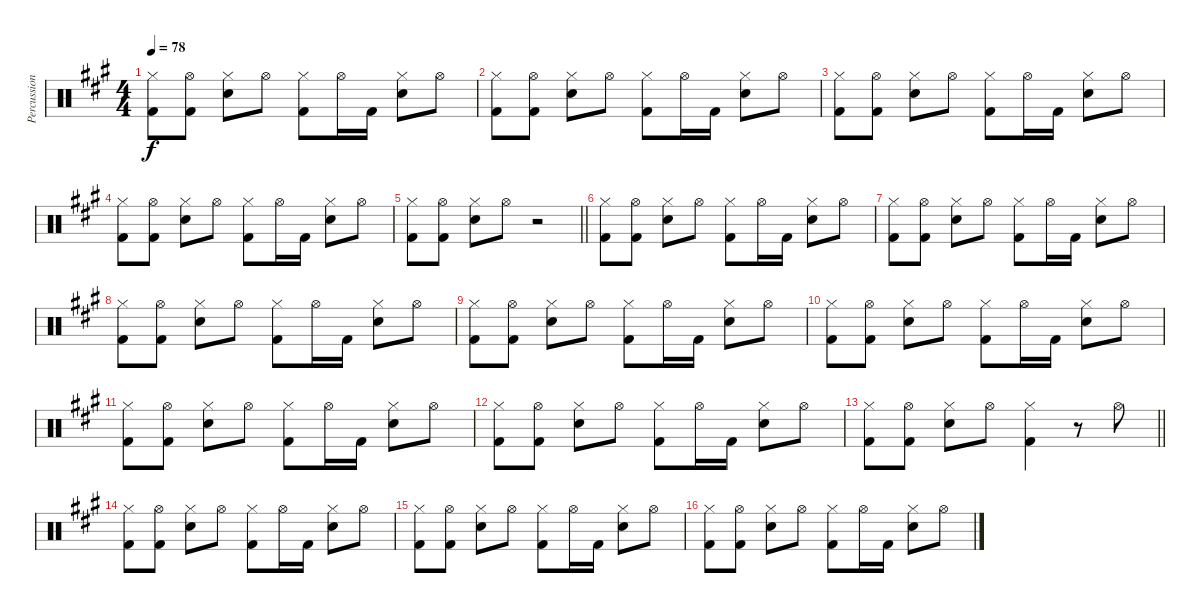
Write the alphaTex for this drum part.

\track ("Percussions" "Percussion") {instrument percussion}
\staff {score}
\articulation defaults
\ts (4 4)
\tempo 78
\clef neutral
\ks a
("Hi-Hat (closed)" "Kick (hit) 2").8{dy f} ("Hi-Hat (open)" "Kick (hit) 2").8 ("Hi-Hat (closed)" "Snare (hit) 2").8 "Hi-Hat (open)".8 ("Hi-Hat (closed)" "Kick (hit) 2").8 "Hi-Hat (open)".16 "Kick (hit) 2".16 ("Hi-Hat (closed)" "Snare (hit) 2").8 "Hi-Hat (open)".8 |
("Hi-Hat (closed)" "Kick (hit) 2").8 ("Hi-Hat (open)" "Kick (hit) 2").8 ("Hi-Hat (closed)" "Snare (hit) 2").8 "Hi-Hat (open)".8 ("Hi-Hat (closed)" "Kick (hit) 2").8 "Hi-Hat (open)".16 "Kick (hit) 2".16 ("Hi-Hat (closed)" "Snare (hit) 2").8 "Hi-Hat (open)".8 |
("Hi-Hat (closed)" "Kick (hit) 2").8 ("Hi-Hat (open)" "Kick (hit) 2").8 ("Hi-Hat (closed)" "Snare (hit) 2").8 "Hi-Hat (open)".8 ("Hi-Hat (closed)" "Kick (hit) 2").8 "Hi-Hat (open)".16 "Kick (hit) 2".16 ("Hi-Hat (closed)" "Snare (hit) 2").8 "Hi-Hat (open)".8 |
("Hi-Hat (closed)" "Kick (hit) 2").8 ("Hi-Hat (open)" "Kick (hit) 2").8 ("Hi-Hat (closed)" "Snare (hit) 2").8 "Hi-Hat (open)".8 ("Hi-Hat (closed)" "Kick (hit) 2").8 "Hi-Hat (open)".16 "Kick (hit) 2".16 ("Hi-Hat (closed)" "Snare (hit) 2").8 "Hi-Hat (open)".8 |
\barLineRight lightlight
("Hi-Hat (closed)" "Kick (hit) 2").8 ("Hi-Hat (open)" "Kick (hit) 2").8 ("Hi-Hat (closed)" "Snare (hit) 2").8 "Hi-Hat (open)".8 r.2 |
("Hi-Hat (closed)" "Kick (hit) 2").8 ("Hi-Hat (open)" "Kick (hit) 2").8 ("Hi-Hat (closed)" "Snare (hit) 2").8 "Hi-Hat (open)".8 ("Hi-Hat (closed)" "Kick (hit) 2").8 "Hi-Hat (open)".16 "Kick (hit) 2".16 ("Hi-Hat (closed)" "Snare (hit) 2").8 "Hi-Hat (open)".8 |
("Hi-Hat (closed)" "Kick (hit) 2").8 ("Hi-Hat (open)" "Kick (hit) 2").8 ("Hi-Hat (closed)" "Snare (hit) 2").8 "Hi-Hat (open)".8 ("Hi-Hat (closed)" "Kick (hit) 2").8 "Hi-Hat (open)".16 "Kick (hit) 2".16 ("Hi-Hat (closed)" "Snare (hit) 2").8 "Hi-Hat (open)".8 |
("Hi-Hat (closed)" "Kick (hit) 2").8 ("Hi-Hat (open)" "Kick (hit) 2").8 ("Hi-Hat (closed)" "Snare (hit) 2").8 "Hi-Hat (open)".8 ("Hi-Hat (closed)" "Kick (hit) 2").8 "Hi-Hat (open)".16 "Kick (hit) 2".16 ("Hi-Hat (closed)" "Snare (hit) 2").8 "Hi-Hat (open)".8 |
("Hi-Hat (closed)" "Kick (hit) 2").8 ("Hi-Hat (open)" "Kick (hit) 2").8 ("Hi-Hat (closed)" "Snare (hit) 2").8 "Hi-Hat (open)".8 ("Hi-Hat (closed)" "Kick (hit) 2").8 "Hi-Hat (open)".16 "Kick (hit) 2".16 ("Hi-Hat (closed)" "Snare (hit) 2").8 "Hi-Hat (open)".8 |
("Hi-Hat (closed)" "Kick (hit) 2").8 ("Hi-Hat (open)" "Kick (hit) 2").8 ("Hi-Hat (closed)" "Snare (hit) 2").8 "Hi-Hat (open)".8 ("Hi-Hat (closed)" "Kick (hit) 2").8 "Hi-Hat (open)".16 "Kick (hit) 2".16 ("Hi-Hat (closed)" "Snare (hit) 2").8 "Hi-Hat (open)".8 |
("Hi-Hat (closed)" "Kick (hit) 2").8 ("Hi-Hat (open)" "Kick (hit) 2").8 ("Hi-Hat (closed)" "Snare (hit) 2").8 "Hi-Hat (open)".8 ("Hi-Hat (closed)" "Kick (hit) 2").8 "Hi-Hat (open)".16 "Kick (hit) 2".16 ("Hi-Hat (closed)" "Snare (hit) 2").8 "Hi-Hat (open)".8 |
("Hi-Hat (closed)" "Kick (hit) 2").8 ("Hi-Hat (open)" "Kick (hit) 2").8 ("Hi-Hat (closed)" "Snare (hit) 2").8 "Hi-Hat (open)".8 ("Hi-Hat (closed)" "Kick (hit) 2").8 "Hi-Hat (open)".16 "Kick (hit) 2".16 ("Hi-Hat (closed)" "Snare (hit) 2").8 "Hi-Hat (open)".8 |
\barLineRight lightlight
("Hi-Hat (closed)" "Kick (hit) 2").8 ("Hi-Hat (open)" "Kick (hit) 2").8 ("Hi-Hat (closed)" "Snare (hit) 2").8 "Hi-Hat (open)".8 ("Hi-Hat (closed)" "Kick (hit) 2").4 r.8 "Hi-Hat (open)".8 |
("Hi-Hat (closed)" "Kick (hit) 2").8 ("Hi-Hat (open)" "Kick (hit) 2").8 ("Hi-Hat (closed)" "Snare (hit) 2").8 "Hi-Hat (open)".8 ("Hi-Hat (closed)" "Kick (hit) 2").8 "Hi-Hat (open)".16 "Kick (hit) 2".16 ("Hi-Hat (closed)" "Snare (hit) 2").8 "Hi-Hat (open)".8 |
("Hi-Hat (closed)" "Kick (hit) 2").8 ("Hi-Hat (open)" "Kick (hit) 2").8 ("Hi-Hat (closed)" "Snare (hit) 2").8 "Hi-Hat (open)".8 ("Hi-Hat (closed)" "Kick (hit) 2").8 "Hi-Hat (open)".16 "Kick (hit) 2".16 ("Hi-Hat (closed)" "Snare (hit) 2").8 "Hi-Hat (open)".8 |
("Hi-Hat (closed)" "Kick (hit) 2").8 ("Hi-Hat (open)" "Kick (hit) 2").8 ("Hi-Hat (closed)" "Snare (hit) 2").8 "Hi-Hat (open)".8 ("Hi-Hat (closed)" "Kick (hit) 2").8 "Hi-Hat (open)".16 "Kick (hit) 2".16 ("Hi-Hat (closed)" "Snare (hit) 2").8 "Hi-Hat (open)".8
